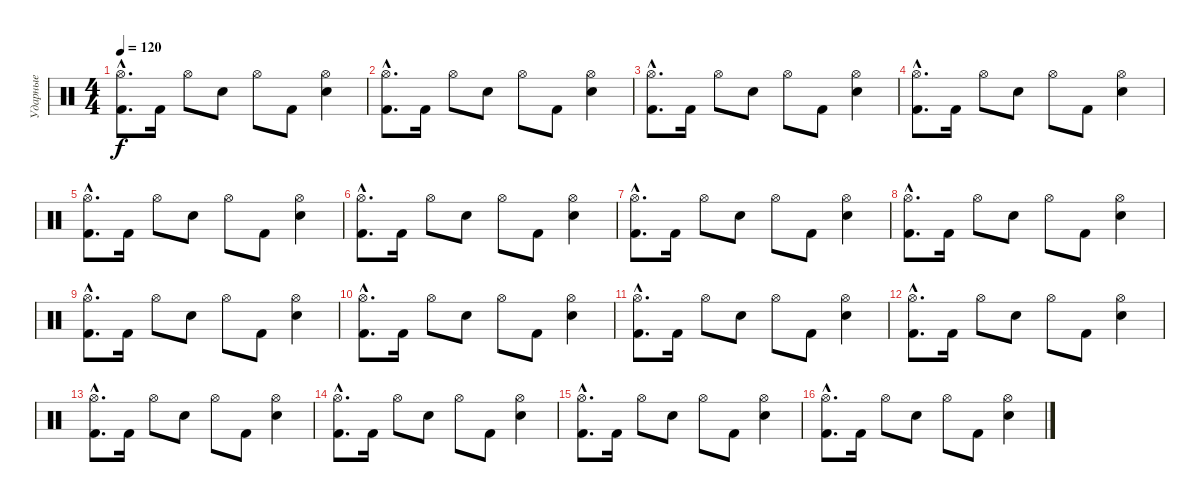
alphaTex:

\track ("Ударные" "Ударные") {instrument percussion}
\staff {score}
\articulation defaults
\ts (4 4)
\tempo 120
\clef neutral
\ks c
("Hi-Hat (open)"{hac} "Kick (hit) 2"{hac}).8{d dy f} "Kick (hit) 2".16 "Hi-Hat (open)".8 "Snare (hit) 2".8 "Hi-Hat (open)".8 "Kick (hit) 2".8 ("Hi-Hat (open)" "Snare (hit) 2").4 |
("Hi-Hat (open)"{hac} "Kick (hit) 2"{hac}).8{d} "Kick (hit) 2".16 "Hi-Hat (open)".8 "Snare (hit) 2".8 "Hi-Hat (open)".8 "Kick (hit) 2".8 ("Hi-Hat (open)" "Snare (hit) 2").4 |
("Hi-Hat (open)"{hac} "Kick (hit) 2"{hac}).8{d} "Kick (hit) 2".16 "Hi-Hat (open)".8 "Snare (hit) 2".8 "Hi-Hat (open)".8 "Kick (hit) 2".8 ("Hi-Hat (open)" "Snare (hit) 2").4 |
("Hi-Hat (open)"{hac} "Kick (hit) 2"{hac}).8{d} "Kick (hit) 2".16 "Hi-Hat (open)".8 "Snare (hit) 2".8 "Hi-Hat (open)".8 "Kick (hit) 2".8 ("Hi-Hat (open)" "Snare (hit) 2").4 |
("Hi-Hat (open)"{hac} "Kick (hit) 2"{hac}).8{d} "Kick (hit) 2".16 "Hi-Hat (open)".8 "Snare (hit) 2".8 "Hi-Hat (open)".8 "Kick (hit) 2".8 ("Hi-Hat (open)" "Snare (hit) 2").4 |
("Hi-Hat (open)"{hac} "Kick (hit) 2"{hac}).8{d} "Kick (hit) 2".16 "Hi-Hat (open)".8 "Snare (hit) 2".8 "Hi-Hat (open)".8 "Kick (hit) 2".8 ("Hi-Hat (open)" "Snare (hit) 2").4 |
("Hi-Hat (open)"{hac} "Kick (hit) 2"{hac}).8{d} "Kick (hit) 2".16 "Hi-Hat (open)".8 "Snare (hit) 2".8 "Hi-Hat (open)".8 "Kick (hit) 2".8 ("Hi-Hat (open)" "Snare (hit) 2").4 |
("Hi-Hat (open)"{hac} "Kick (hit) 2"{hac}).8{d} "Kick (hit) 2".16 "Hi-Hat (open)".8 "Snare (hit) 2".8 "Hi-Hat (open)".8 "Kick (hit) 2".8 ("Hi-Hat (open)" "Snare (hit) 2").4 |
("Hi-Hat (open)"{hac} "Kick (hit) 2"{hac}).8{d} "Kick (hit) 2".16 "Hi-Hat (open)".8 "Snare (hit) 2".8 "Hi-Hat (open)".8 "Kick (hit) 2".8 ("Hi-Hat (open)" "Snare (hit) 2").4 |
("Hi-Hat (open)"{hac} "Kick (hit) 2"{hac}).8{d} "Kick (hit) 2".16 "Hi-Hat (open)".8 "Snare (hit) 2".8 "Hi-Hat (open)".8 "Kick (hit) 2".8 ("Hi-Hat (open)" "Snare (hit) 2").4 |
("Hi-Hat (open)"{hac} "Kick (hit) 2"{hac}).8{d} "Kick (hit) 2".16 "Hi-Hat (open)".8 "Snare (hit) 2".8 "Hi-Hat (open)".8 "Kick (hit) 2".8 ("Hi-Hat (open)" "Snare (hit) 2").4 |
("Hi-Hat (open)"{hac} "Kick (hit) 2"{hac}).8{d} "Kick (hit) 2".16 "Hi-Hat (open)".8 "Snare (hit) 2".8 "Hi-Hat (open)".8 "Kick (hit) 2".8 ("Hi-Hat (open)" "Snare (hit) 2").4 |
("Hi-Hat (open)"{hac} "Kick (hit) 2"{hac}).8{d} "Kick (hit) 2".16 "Hi-Hat (open)".8 "Snare (hit) 2".8 "Hi-Hat (open)".8 "Kick (hit) 2".8 ("Hi-Hat (open)" "Snare (hit) 2").4 |
("Hi-Hat (open)"{hac} "Kick (hit) 2"{hac}).8{d} "Kick (hit) 2".16 "Hi-Hat (open)".8 "Snare (hit) 2".8 "Hi-Hat (open)".8 "Kick (hit) 2".8 ("Hi-Hat (open)" "Snare (hit) 2").4 |
("Hi-Hat (open)"{hac} "Kick (hit) 2"{hac}).8{d} "Kick (hit) 2".16 "Hi-Hat (open)".8 "Snare (hit) 2".8 "Hi-Hat (open)".8 "Kick (hit) 2".8 ("Hi-Hat (open)" "Snare (hit) 2").4 |
("Hi-Hat (open)"{hac} "Kick (hit) 2"{hac}).8{d} "Kick (hit) 2".16 "Hi-Hat (open)".8 "Snare (hit) 2".8 "Hi-Hat (open)".8 "Kick (hit) 2".8 ("Hi-Hat (open)" "Snare (hit) 2").4
